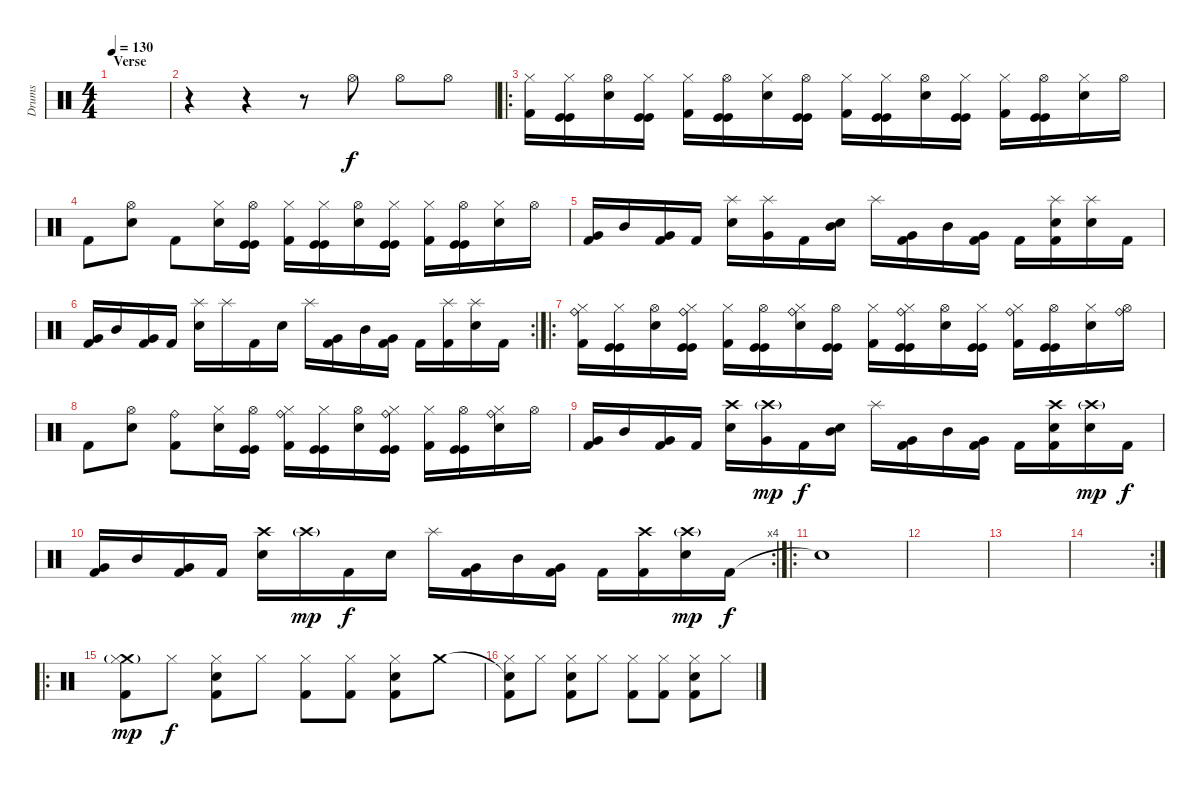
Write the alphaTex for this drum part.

\track ("Drums" "Drums") {instrument percussion}
\staff {score}
\articulation defaults
\ts (4 4)
\section ("" "Verse")
\tempo 130
\clef neutral
\ks c
|
r.4 r.4 r.8 "Hi-Hat (open)".8 "Hi-Hat (open)".8 "Hi-Hat (open)".8 |
\ro
("Hi-Hat (closed)" "Kick (hit) 2").16 ("Hi-Hat (closed)" "Kick (hit)" "Kick (hit)").16 ("Hi-Hat (open)" "Electric Snare (hit)").16 ("Hi-Hat (closed)" "Kick (hit)" "Kick (hit)").16 ("Hi-Hat (closed)" "Kick (hit) 2").16 ("Hi-Hat (open)" "Kick (hit)" "Kick (hit)").16 ("Hi-Hat (closed)" "Electric Snare (hit)").16 ("Hi-Hat (open)" "Kick (hit)" "Kick (hit)").16 ("Hi-Hat (closed)" "Kick (hit) 2").16 ("Hi-Hat (closed)" "Kick (hit)" "Kick (hit)").16 ("Hi-Hat (open)" "Electric Snare (hit)").16 ("Hi-Hat (closed)" "Kick (hit)" "Kick (hit)").16 ("Hi-Hat (closed)" "Kick (hit) 2").16 ("Hi-Hat (open)" "Kick (hit)" "Kick (hit)").16 ("Hi-Hat (closed)" "Electric Snare (hit)").16 "Hi-Hat (open)".16 |
"Kick (hit) 2".8 ("Hi-Hat (open)" "Electric Snare (hit)").8 "Kick (hit) 2".8 ("Hi-Hat (closed)" "Electric Snare (hit)").16 ("Hi-Hat (open)" "Kick (hit)" "Kick (hit)").16 ("Hi-Hat (closed)" "Kick (hit) 2").16 ("Hi-Hat (closed)" "Kick (hit)" "Kick (hit)").16 ("Hi-Hat (open)" "Electric Snare (hit)").16 ("Hi-Hat (closed)" "Kick (hit)" "Kick (hit)").16 ("Hi-Hat (closed)" "Kick (hit) 2").16 ("Hi-Hat (open)" "Kick (hit)" "Kick (hit)").16 ("Hi-Hat (closed)" "Electric Snare (hit)").16 "Hi-Hat (open)".16 |
("Very Low Tom (hit)" "Kick (hit) 2").16 "Mid Tom (hit)".16 ("Very Low Tom (hit)" "Kick (hit) 2").16 "Kick (hit) 2".16 ("Splash (hit)" "Electric Snare (hit)").16 ("Splash (hit)" "Very Low Tom (hit)").16 "Kick (hit) 2".16 ("Mid Tom (hit)" "Electric Snare (hit)").16 "Splash (hit)".16 ("Very Low Tom (hit)" "Kick (hit) 2").16 "Mid Tom (hit)".16 ("Very Low Tom (hit)" "Kick (hit) 2").16 "Kick (hit) 2".16 ("Splash (hit)" "Electric Snare (hit)" "Kick (hit) 2").16 ("Splash (hit)" "Electric Snare (hit)").16 "Kick (hit) 2".16 |
\rc 2
("Very Low Tom (hit)" "Kick (hit) 2").16 "Mid Tom (hit)".16 ("Very Low Tom (hit)" "Kick (hit) 2").16 "Kick (hit) 2".16 ("Splash (hit)" "Electric Snare (hit)").16 "Splash (hit)".16 "Kick (hit) 2".16 "Electric Snare (hit)".16 "Splash (hit)".16 ("Very Low Tom (hit)" "Kick (hit) 2").16 "Mid Tom (hit)".16 ("Very Low Tom (hit)" "Kick (hit) 2").16 "Kick (hit) 2".16 ("Splash (hit)" "Kick (hit) 2").16 ("Splash (hit)" "Electric Snare (hit)").16 "Kick (hit) 2".16 |
\ro
("Ride (bell)" "Hi-Hat (closed)" "Kick (hit) 2").16 ("Hi-Hat (closed)" "Kick (hit)" "Kick (hit)").16 ("Hi-Hat (open)" "Electric Snare (hit)").16 ("Ride (bell)" "Hi-Hat (closed)" "Kick (hit)" "Kick (hit)").16 ("Hi-Hat (closed)" "Kick (hit) 2").16 ("Hi-Hat (open)" "Kick (hit)" "Kick (hit)").16 ("Ride (bell)" "Hi-Hat (closed)" "Electric Snare (hit)").16 ("Hi-Hat (open)" "Kick (hit)" "Kick (hit)").16 ("Hi-Hat (closed)" "Kick (hit) 2").16 ("Ride (bell)" "Hi-Hat (closed)" "Kick (hit)" "Kick (hit)").16 ("Hi-Hat (open)" "Electric Snare (hit)").16 ("Hi-Hat (closed)" "Kick (hit)" "Kick (hit)").16 ("Ride (bell)" "Hi-Hat (closed)" "Kick (hit) 2").16 ("Hi-Hat (open)" "Kick (hit)" "Kick (hit)").16 ("Hi-Hat (closed)" "Electric Snare (hit)").16 ("Ride (bell)" "Hi-Hat (open)").16 |
"Kick (hit) 2".8 ("Hi-Hat (open)" "Electric Snare (hit)").8 ("Ride (bell)" "Kick (hit) 2").8 ("Hi-Hat (closed)" "Electric Snare (hit)").16 ("Hi-Hat (open)" "Kick (hit)" "Kick (hit)").16 ("Ride (bell)" "Hi-Hat (closed)" "Kick (hit) 2").16 ("Hi-Hat (closed)" "Kick (hit)" "Kick (hit)").16 ("Hi-Hat (open)" "Electric Snare (hit)").16 ("Ride (bell)" "Hi-Hat (closed)" "Kick (hit)" "Kick (hit)").16 ("Hi-Hat (closed)" "Kick (hit) 2").16 ("Hi-Hat (open)" "Kick (hit)" "Kick (hit)").16 ("Ride (bell)" "Hi-Hat (closed)" "Electric Snare (hit)").16 "Hi-Hat (open)".16 |
("Very Low Tom (hit)" "Kick (hit) 2").16 "Mid Tom (hit)".16 ("Very Low Tom (hit)" "Kick (hit) 2").16 "Kick (hit) 2".16 ("Crash high (hit)" "Electric Snare (hit)").16 ("Crash high (hit)"{g} "Very Low Tom (hit)").16{dy mp} "Kick (hit) 2".16{dy f} ("Mid Tom (hit)" "Electric Snare (hit)").16 "Splash (hit)".16 ("Very Low Tom (hit)" "Kick (hit) 2").16 "Mid Tom (hit)".16 ("Very Low Tom (hit)" "Kick (hit) 2").16 "Kick (hit) 2".16 ("Crash high (hit)" "Electric Snare (hit)" "Kick (hit) 2").16 ("Crash high (hit)"{g} "Electric Snare (hit)").16{dy mp} "Kick (hit) 2".16{dy f} |
\rc 4
("Very Low Tom (hit)" "Kick (hit) 2").16 "Mid Tom (hit)".16 ("Very Low Tom (hit)" "Kick (hit) 2").16 "Kick (hit) 2".16 ("Crash high (hit)" "Electric Snare (hit)").16 "Crash high (hit)"{g}.16{dy mp} "Kick (hit) 2".16{dy f} "Electric Snare (hit)".16 "Splash (hit)".16 ("Very Low Tom (hit)" "Kick (hit) 2").16 "Mid Tom (hit)".16 ("Very Low Tom (hit)" "Kick (hit) 2").16 "Kick (hit) 2".16 ("Crash high (hit)" "Kick (hit) 2").16 ("Crash high (hit)"{g} "Electric Snare (hit)").16{dy mp} "Kick (hit) 2".16{dy f} |
\ro "Snare (hit)"{t}.1
|
|
|
\rc 2
|
\ro
("Crash medium (hit)"{g} "Hi-Hat (closed)" "Kick (hit) 2").8{dy mp} "Hi-Hat (closed)".8{dy f} ("Hi-Hat (closed)" "Snare (hit) 2" "Kick (hit) 2").8 "Hi-Hat (closed)".8 ("Hi-Hat (closed)" "Kick (hit) 2").8 ("Hi-Hat (closed)" "Kick (hit) 2").8 ("Hi-Hat (closed)" "Snare (hit) 2" "Kick (hit) 2").8 "Crash medium (hit)".8 |
("Snare (hit)"{t} "Hi-Hat (closed)" "Kick (hit) 2").8 "Hi-Hat (closed)".8 ("Hi-Hat (closed)" "Snare (hit) 2" "Kick (hit) 2").8 "Hi-Hat (closed)".8 ("Hi-Hat (closed)" "Kick (hit) 2").8 ("Hi-Hat (closed)" "Kick (hit) 2").8 ("Hi-Hat (closed)" "Snare (hit) 2" "Kick (hit) 2").8 "Hi-Hat (closed)".8
